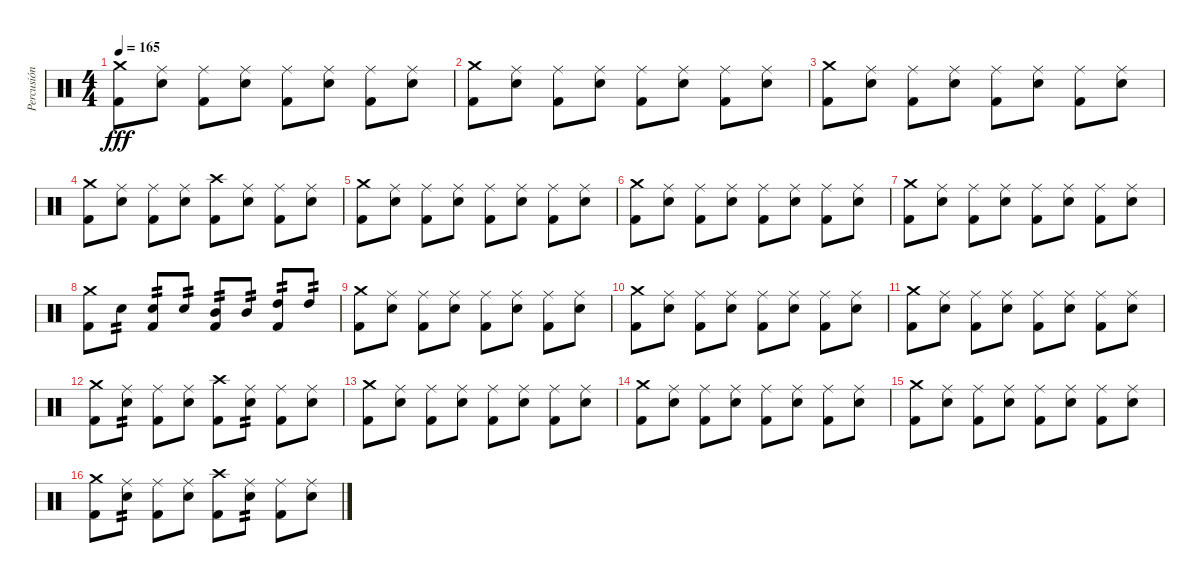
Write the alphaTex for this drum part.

\track ("Percusión" "Percusión") {instrument percussion}
\staff {score}
\articulation defaults
\ts (4 4)
\tempo 165
\clef neutral
\ks c
("Crash medium (hit)" "Kick (hit) 2").8{dy fff} ("Ride (middle)" "Electric Snare (hit)").8 ("Ride (middle)" "Kick (hit) 2").8 ("Ride (middle)" "Electric Snare (hit)").8 ("Ride (middle)" "Kick (hit) 2").8 ("Ride (middle)" "Electric Snare (hit)").8 ("Ride (middle)" "Kick (hit) 2").8 ("Ride (middle)" "Electric Snare (hit)").8 |
("Crash medium (hit)" "Kick (hit) 2").8 ("Ride (middle)" "Electric Snare (hit)").8 ("Ride (middle)" "Kick (hit) 2").8 ("Ride (middle)" "Electric Snare (hit)").8 ("Ride (middle)" "Kick (hit) 2").8 ("Ride (middle)" "Electric Snare (hit)").8 ("Ride (middle)" "Kick (hit) 2").8 ("Ride (middle)" "Electric Snare (hit)").8 |
("Crash medium (hit)" "Kick (hit) 2").8 ("Ride (middle)" "Electric Snare (hit)").8 ("Ride (middle)" "Kick (hit) 2").8 ("Ride (middle)" "Electric Snare (hit)").8 ("Ride (middle)" "Kick (hit) 2").8 ("Ride (middle)" "Electric Snare (hit)").8 ("Ride (middle)" "Kick (hit) 2").8 ("Ride (middle)" "Electric Snare (hit)").8 |
("Crash medium (hit)" "Kick (hit) 2").8 ("Ride (middle)" "Electric Snare (hit)").8 ("Ride (middle)" "Kick (hit) 2").8 ("Ride (middle)" "Electric Snare (hit)").8 ("Crash high (hit)" "Kick (hit) 2").8 ("Ride (middle)" "Electric Snare (hit)").8 ("Ride (middle)" "Kick (hit) 2").8 ("Ride (middle)" "Electric Snare (hit)").8 |
("Crash medium (hit)" "Kick (hit) 2").8 ("Ride (middle)" "Electric Snare (hit)").8 ("Ride (middle)" "Kick (hit) 2").8 ("Ride (middle)" "Electric Snare (hit)").8 ("Ride (middle)" "Kick (hit) 2").8 ("Ride (middle)" "Electric Snare (hit)").8 ("Ride (middle)" "Kick (hit) 2").8 ("Ride (middle)" "Electric Snare (hit)").8 |
("Crash medium (hit)" "Kick (hit) 2").8 ("Ride (middle)" "Electric Snare (hit)").8 ("Ride (middle)" "Kick (hit) 2").8 ("Ride (middle)" "Electric Snare (hit)").8 ("Ride (middle)" "Kick (hit) 2").8 ("Ride (middle)" "Electric Snare (hit)").8 ("Ride (middle)" "Kick (hit) 2").8 ("Ride (middle)" "Electric Snare (hit)").8 |
("Crash medium (hit)" "Kick (hit) 2").8 ("Ride (middle)" "Electric Snare (hit)").8 ("Ride (middle)" "Kick (hit) 2").8 ("Ride (middle)" "Electric Snare (hit)").8 ("Ride (middle)" "Kick (hit) 2").8 ("Ride (middle)" "Electric Snare (hit)").8 ("Ride (middle)" "Kick (hit) 2").8 ("Ride (middle)" "Electric Snare (hit)").8 |
("Crash medium (hit)" "Kick (hit) 2").8 "Electric Snare (hit)".8{tp 2} ("Electric Snare (hit)" "Kick (hit) 2").8{tp 2} "Electric Snare (hit)".8{tp 2} ("Mid Tom (hit)" "Kick (hit) 2").8{tp 2} "Mid Tom (hit)".8{tp 2} ("High Tom (hit)" "Kick (hit) 2").8{tp 2} "High Tom (hit)".8{tp 2} |
("Crash medium (hit)" "Kick (hit) 2").8 ("Ride (middle)" "Electric Snare (hit)").8 ("Ride (middle)" "Kick (hit) 2").8 ("Ride (middle)" "Electric Snare (hit)").8 ("Ride (middle)" "Kick (hit) 2").8 ("Ride (middle)" "Electric Snare (hit)").8 ("Ride (middle)" "Kick (hit) 2").8 ("Ride (middle)" "Electric Snare (hit)").8 |
("Crash medium (hit)" "Kick (hit) 2").8 ("Ride (middle)" "Electric Snare (hit)").8 ("Ride (middle)" "Kick (hit) 2").8 ("Ride (middle)" "Electric Snare (hit)").8 ("Ride (middle)" "Kick (hit) 2").8 ("Ride (middle)" "Electric Snare (hit)").8 ("Ride (middle)" "Kick (hit) 2").8 ("Ride (middle)" "Electric Snare (hit)").8 |
("Crash medium (hit)" "Kick (hit) 2").8 ("Ride (middle)" "Electric Snare (hit)").8 ("Ride (middle)" "Kick (hit) 2").8 ("Ride (middle)" "Electric Snare (hit)").8 ("Ride (middle)" "Kick (hit) 2").8 ("Ride (middle)" "Electric Snare (hit)").8 ("Ride (middle)" "Kick (hit) 2").8 ("Ride (middle)" "Electric Snare (hit)").8 |
("Crash medium (hit)" "Kick (hit) 2").8 ("Ride (middle)" "Electric Snare (hit)").8{tp 2} ("Ride (middle)" "Kick (hit) 2").8 ("Ride (middle)" "Electric Snare (hit)").8 ("Crash high (hit)" "Kick (hit) 2").8 ("Ride (middle)" "Electric Snare (hit)").8{tp 2} ("Ride (middle)" "Kick (hit) 2").8 ("Ride (middle)" "Electric Snare (hit)").8 |
("Crash medium (hit)" "Kick (hit) 2").8 ("Ride (middle)" "Electric Snare (hit)").8 ("Ride (middle)" "Kick (hit) 2").8 ("Ride (middle)" "Electric Snare (hit)").8 ("Ride (middle)" "Kick (hit) 2").8 ("Ride (middle)" "Electric Snare (hit)").8 ("Ride (middle)" "Kick (hit) 2").8 ("Ride (middle)" "Electric Snare (hit)").8 |
("Crash medium (hit)" "Kick (hit) 2").8 ("Ride (middle)" "Electric Snare (hit)").8 ("Ride (middle)" "Kick (hit) 2").8 ("Ride (middle)" "Electric Snare (hit)").8 ("Ride (middle)" "Kick (hit) 2").8 ("Ride (middle)" "Electric Snare (hit)").8 ("Ride (middle)" "Kick (hit) 2").8 ("Ride (middle)" "Electric Snare (hit)").8 |
("Crash medium (hit)" "Kick (hit) 2").8 ("Ride (middle)" "Electric Snare (hit)").8 ("Ride (middle)" "Kick (hit) 2").8 ("Ride (middle)" "Electric Snare (hit)").8 ("Ride (middle)" "Kick (hit) 2").8 ("Ride (middle)" "Electric Snare (hit)").8 ("Ride (middle)" "Kick (hit) 2").8 ("Ride (middle)" "Electric Snare (hit)").8 |
("Crash medium (hit)" "Kick (hit) 2").8 ("Ride (middle)" "Electric Snare (hit)").8{tp 2} ("Ride (middle)" "Kick (hit) 2").8 ("Ride (middle)" "Electric Snare (hit)").8 ("Crash high (hit)" "Kick (hit) 2").8 ("Ride (middle)" "Electric Snare (hit)").8{tp 2} ("Ride (middle)" "Kick (hit) 2").8 ("Ride (middle)" "Electric Snare (hit)").8
